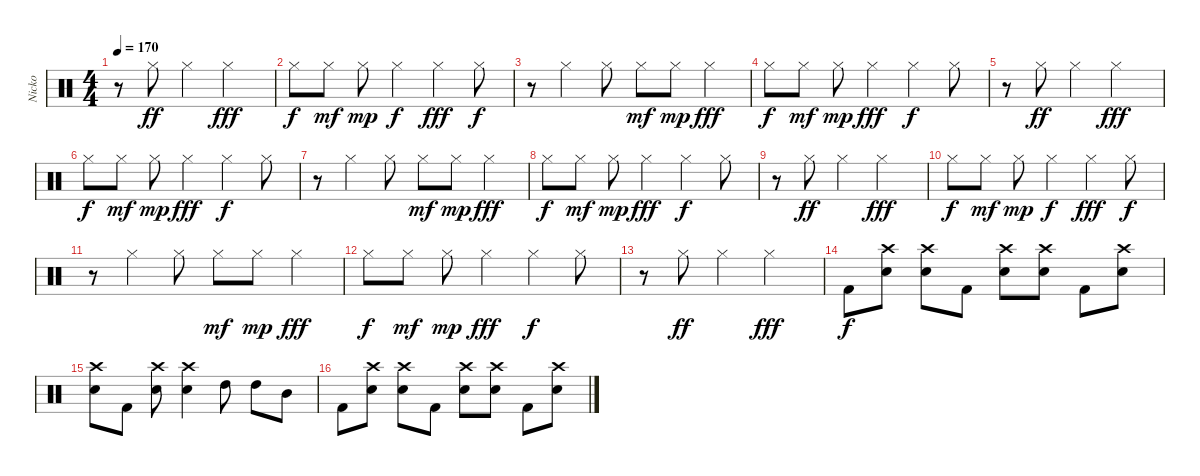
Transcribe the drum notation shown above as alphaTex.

\track ("Nicko" "Nicko") {instrument percussion}
\staff {score}
\articulation defaults
\ts (4 4)
\tempo 170
\clef neutral
\ks c
r.8{dy f} "Hi-Hat (closed)".8{dy ff} "Hi-Hat (closed)".4 "Hi-Hat (closed)".2{dy fff} |
"Hi-Hat (closed)".8{dy f} "Hi-Hat (closed)".8{dy mf} "Hi-Hat (closed)".8{dy mp} "Hi-Hat (closed)".4{dy f} "Hi-Hat (closed)".4{dy fff} "Hi-Hat (closed)".8{dy f} |
r.8 "Hi-Hat (closed)".4 "Hi-Hat (closed)".8 "Hi-Hat (closed)".8{dy mf} "Hi-Hat (closed)".8{dy mp} "Hi-Hat (closed)".4{dy fff} |
"Hi-Hat (closed)".8{dy f} "Hi-Hat (closed)".8{dy mf} "Hi-Hat (closed)".8{dy mp} "Hi-Hat (closed)".4{dy fff} "Hi-Hat (closed)".4{dy f} "Hi-Hat (closed)".8 |
r.8 "Hi-Hat (closed)".8{dy ff} "Hi-Hat (closed)".4 "Hi-Hat (closed)".2{dy fff} |
"Hi-Hat (closed)".8{dy f} "Hi-Hat (closed)".8{dy mf} "Hi-Hat (closed)".8{dy mp} "Hi-Hat (closed)".4{dy fff} "Hi-Hat (closed)".4{dy f} "Hi-Hat (closed)".8 |
r.8 "Hi-Hat (closed)".4 "Hi-Hat (closed)".8 "Hi-Hat (closed)".8{dy mf} "Hi-Hat (closed)".8{dy mp} "Hi-Hat (closed)".4{dy fff} |
"Hi-Hat (closed)".8{dy f} "Hi-Hat (closed)".8{dy mf} "Hi-Hat (closed)".8{dy mp} "Hi-Hat (closed)".4{dy fff} "Hi-Hat (closed)".4{dy f} "Hi-Hat (closed)".8 |
r.8 "Hi-Hat (closed)".8{dy ff} "Hi-Hat (closed)".4 "Hi-Hat (closed)".2{dy fff} |
"Hi-Hat (closed)".8{dy f} "Hi-Hat (closed)".8{dy mf} "Hi-Hat (closed)".8{dy mp} "Hi-Hat (closed)".4{dy f} "Hi-Hat (closed)".4{dy fff} "Hi-Hat (closed)".8{dy f} |
r.8 "Hi-Hat (closed)".4 "Hi-Hat (closed)".8 "Hi-Hat (closed)".8{dy mf} "Hi-Hat (closed)".8{dy mp} "Hi-Hat (closed)".4{dy fff} |
"Hi-Hat (closed)".8{dy f} "Hi-Hat (closed)".8{dy mf} "Hi-Hat (closed)".8{dy mp} "Hi-Hat (closed)".4{dy fff} "Hi-Hat (closed)".4{dy f} "Hi-Hat (closed)".8 |
r.8 "Hi-Hat (closed)".8{dy ff} "Hi-Hat (closed)".4 "Hi-Hat (closed)".2{dy fff} |
"Kick (hit) 2".8{dy f} ("Crash high (hit)" "Snare (hit) 2").8 ("Crash high (hit)" "Snare (hit) 2").8 "Kick (hit) 2".8 ("Crash high (hit)" "Snare (hit) 2").8 ("Crash high (hit)" "Snare (hit) 2").8 "Kick (hit) 2".8 ("Crash high (hit)" "Snare (hit) 2").8 |
("Crash high (hit)" "Snare (hit) 2").8 "Kick (hit) 2".8 ("Crash high (hit)" "Snare (hit) 2").8 ("Crash high (hit)" "Snare (hit) 2").4 "High Tom (hit)".8 "High Tom (hit)".8 "Mid Tom (hit)".8 |
"Kick (hit) 2".8 ("Crash high (hit)" "Snare (hit) 2").8 ("Crash high (hit)" "Snare (hit) 2").8 "Kick (hit) 2".8 ("Crash high (hit)" "Snare (hit) 2").8 ("Crash high (hit)" "Snare (hit) 2").8 "Kick (hit) 2".8 ("Crash high (hit)" "Snare (hit) 2").8
